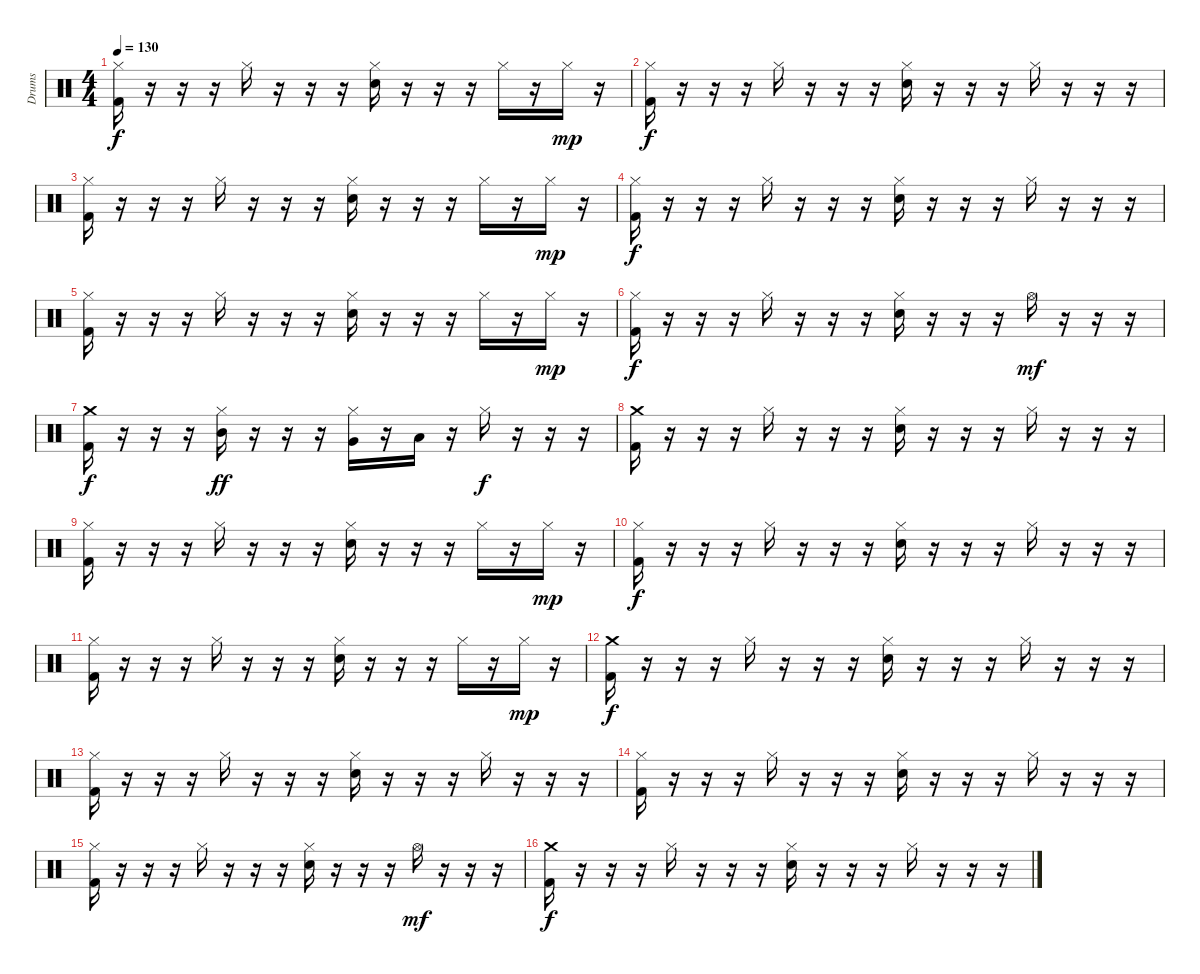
\track ("Drums" "Drums") {instrument percussion}
\staff {score}
\articulation defaults
\ts (4 4)
\tempo 130
\clef neutral
\ks c
("Hi-Hat (closed)" "Kick (hit) 2").16{dy f} r.16 r.16 r.16 "Hi-Hat (closed)".16 r.16 r.16 r.16 ("Hi-Hat (closed)" "Snare (hit) 2").16 r.16 r.16 r.16 "Hi-Hat (closed)".16 r.16 "Hi-Hat (closed)".16{dy mp} r.16 |
("Hi-Hat (closed)" "Kick (hit) 2").16{dy f} r.16 r.16 r.16 "Hi-Hat (closed)".16 r.16 r.16 r.16 ("Hi-Hat (closed)" "Snare (hit) 2").16 r.16 r.16 r.16 "Hi-Hat (closed)".16 r.16 r.16 r.16 |
("Hi-Hat (closed)" "Kick (hit) 2").16 r.16 r.16 r.16 "Hi-Hat (closed)".16 r.16 r.16 r.16 ("Hi-Hat (closed)" "Snare (hit) 2").16 r.16 r.16 r.16 "Hi-Hat (closed)".16 r.16 "Hi-Hat (closed)".16{dy mp} r.16 |
("Hi-Hat (closed)" "Kick (hit) 2").16{dy f} r.16 r.16 r.16 "Hi-Hat (closed)".16 r.16 r.16 r.16 ("Hi-Hat (closed)" "Snare (hit) 2").16 r.16 r.16 r.16 "Hi-Hat (closed)".16 r.16 r.16 r.16 |
("Hi-Hat (closed)" "Kick (hit) 2").16 r.16 r.16 r.16 "Hi-Hat (closed)".16 r.16 r.16 r.16 ("Hi-Hat (closed)" "Snare (hit) 2").16 r.16 r.16 r.16 "Hi-Hat (closed)".16 r.16 "Hi-Hat (closed)".16{dy mp} r.16 |
("Hi-Hat (closed)" "Kick (hit) 2").16{dy f} r.16 r.16 r.16 "Hi-Hat (closed)".16 r.16 r.16 r.16 ("Hi-Hat (closed)" "Snare (hit) 2").16 r.16 r.16 r.16 "Hi-Hat (open)".16{dy mf} r.16 r.16 r.16 |
("Crash medium (hit)" "Kick (hit) 2").16{dy f} r.16 r.16 r.16 ("Hi-Hat (closed)" "Mid Tom (hit)").16{dy ff} r.16 r.16 r.16 ("Hi-Hat (closed)" "Very Low Tom (hit)").16 r.16 "Low Floor Tom (hit)".16 r.16 "Hi-Hat (closed)".16{dy f} r.16 r.16 r.16 |
("Crash medium (hit)" "Kick (hit) 2").16 r.16 r.16 r.16 "Hi-Hat (closed)".16 r.16 r.16 r.16 ("Hi-Hat (closed)" "Snare (hit) 2").16 r.16 r.16 r.16 "Hi-Hat (closed)".16 r.16 r.16 r.16 |
("Hi-Hat (closed)" "Kick (hit) 2").16 r.16 r.16 r.16 "Hi-Hat (closed)".16 r.16 r.16 r.16 ("Hi-Hat (closed)" "Snare (hit) 2").16 r.16 r.16 r.16 "Hi-Hat (closed)".16 r.16 "Hi-Hat (closed)".16{dy mp} r.16 |
("Hi-Hat (closed)" "Kick (hit) 2").16{dy f} r.16 r.16 r.16 "Hi-Hat (closed)".16 r.16 r.16 r.16 ("Hi-Hat (closed)" "Snare (hit) 2").16 r.16 r.16 r.16 "Hi-Hat (closed)".16 r.16 r.16 r.16 |
("Hi-Hat (closed)" "Kick (hit) 2").16 r.16 r.16 r.16 "Hi-Hat (closed)".16 r.16 r.16 r.16 ("Hi-Hat (closed)" "Snare (hit) 2").16 r.16 r.16 r.16 "Hi-Hat (closed)".16 r.16 "Hi-Hat (closed)".16{dy mp} r.16 |
("Crash medium (hit)" "Kick (hit) 2").16{dy f} r.16 r.16 r.16 "Hi-Hat (closed)".16 r.16 r.16 r.16 ("Hi-Hat (closed)" "Snare (hit) 2").16 r.16 r.16 r.16 "Hi-Hat (closed)".16 r.16 r.16 r.16 |
("Hi-Hat (closed)" "Kick (hit) 2").16 r.16 r.16 r.16 "Hi-Hat (closed)".16 r.16 r.16 r.16 ("Hi-Hat (closed)" "Snare (hit) 2").16 r.16 r.16 r.16 "Hi-Hat (closed)".16 r.16 r.16 r.16 |
("Hi-Hat (closed)" "Kick (hit) 2").16 r.16 r.16 r.16 "Hi-Hat (closed)".16 r.16 r.16 r.16 ("Hi-Hat (closed)" "Snare (hit) 2").16 r.16 r.16 r.16 "Hi-Hat (closed)".16 r.16 r.16 r.16 |
("Hi-Hat (closed)" "Kick (hit) 2").16 r.16 r.16 r.16 "Hi-Hat (closed)".16 r.16 r.16 r.16 ("Hi-Hat (closed)" "Snare (hit) 2").16 r.16 r.16 r.16 "Hi-Hat (open)".16{dy mf} r.16 r.16 r.16 |
("Crash medium (hit)" "Kick (hit) 2").16{dy f} r.16 r.16 r.16 "Hi-Hat (closed)".16 r.16 r.16 r.16 ("Hi-Hat (closed)" "Snare (hit) 2").16 r.16 r.16 r.16 "Hi-Hat (closed)".16 r.16 r.16 r.16
